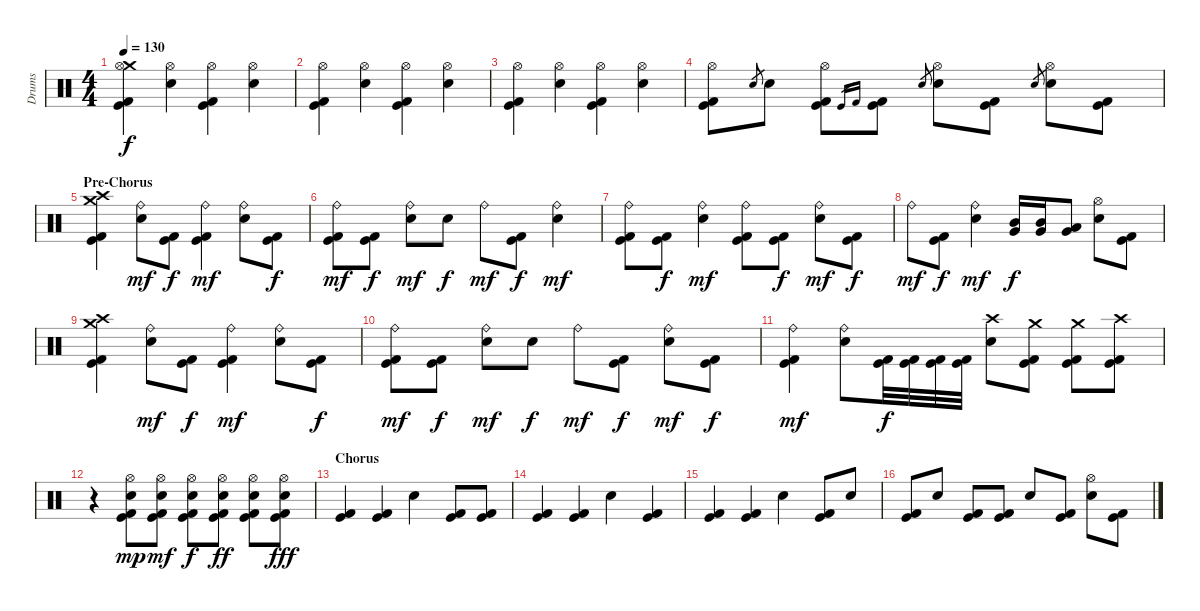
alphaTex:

\track ("Drums" "Drums") {instrument percussion}
\staff {score}
\articulation defaults
\ts (4 4)
\tempo 130
\clef neutral
\ks c
("Crash medium (hit)" "Hi-Hat (open)" "Kick (hit)" "Kick (hit) 2").4{dy f} ("Hi-Hat (open)" "Electric Snare (hit)").4 ("Hi-Hat (open)" "Kick (hit)" "Kick (hit) 2").4 ("Hi-Hat (open)" "Electric Snare (hit)").4 |
("Hi-Hat (open)" "Kick (hit)" "Kick (hit) 2").4 ("Hi-Hat (open)" "Electric Snare (hit)").4 ("Hi-Hat (open)" "Kick (hit)" "Kick (hit) 2").4 ("Hi-Hat (open)" "Electric Snare (hit)").4 |
("Hi-Hat (open)" "Kick (hit)" "Kick (hit) 2").4 ("Hi-Hat (open)" "Electric Snare (hit)").4 ("Hi-Hat (open)" "Kick (hit)" "Kick (hit) 2").4 ("Hi-Hat (open)" "Electric Snare (hit)").4 |
("Hi-Hat (open)" "Kick (hit)" "Kick (hit) 2").8 "Electric Snare (hit)".8{gr} "Electric Snare (hit)".8 ("Hi-Hat (open)" "Kick (hit)" "Kick (hit) 2").8 "Kick (hit)".16{gr} "Kick (hit) 2".16{gr} ("Kick (hit)" "Kick (hit) 2").8 "Electric Snare (hit)".8{gr} ("Hi-Hat (open)" "Electric Snare (hit)").8 ("Kick (hit)" "Kick (hit) 2").8 "Electric Snare (hit)".8{gr} ("Hi-Hat (open)" "Electric Snare (hit)").8 ("Kick (hit)" "Kick (hit) 2").8 |
\section ("" "Pre-Chorus")
("Crash medium (hit)" "Crash high (hit)" "Kick (hit)" "Kick (hit) 2").4 ("Ride (bell)" "Electric Snare (hit)").8{dy mf} ("Kick (hit)" "Kick (hit) 2").8{dy f} ("Ride (bell)" "Kick (hit)" "Kick (hit) 2").4{dy mf} ("Ride (bell)" "Electric Snare (hit)").8 ("Kick (hit)" "Kick (hit) 2").8{dy f} |
("Ride (bell)" "Kick (hit)" "Kick (hit) 2").8{dy mf} ("Kick (hit)" "Kick (hit) 2").8{dy f} ("Ride (bell)" "Electric Snare (hit)").8{dy mf} "Electric Snare (hit)".8{dy f} "Ride (bell)".8{dy mf} ("Kick (hit)" "Kick (hit) 2").8{dy f} ("Ride (bell)" "Electric Snare (hit)").4{dy mf} |
("Ride (bell)" "Kick (hit)" "Kick (hit) 2").8 ("Kick (hit)" "Kick (hit) 2").8{dy f} ("Ride (bell)" "Electric Snare (hit)").4{dy mf} ("Ride (bell)" "Kick (hit)" "Kick (hit) 2").8 ("Kick (hit)" "Kick (hit) 2").8{dy f} ("Ride (bell)" "Electric Snare (hit)").8{dy mf} ("Kick (hit)" "Kick (hit) 2").8{dy f} |
"Ride (bell)".8{dy mf} ("Kick (hit)" "Kick (hit) 2").8{dy f} ("Ride (bell)" "Electric Snare (hit)").4{dy mf} ("Mid Tom (hit)" "Very Low Tom (hit)").16{dy f} ("Mid Tom (hit)" "Very Low Tom (hit)").16 ("Low Tom (hit)" "Very Low Tom (hit)").8 ("Hi-Hat (open)" "Electric Snare (hit)").8 ("Kick (hit)" "Kick (hit) 2").8 |
("Crash medium (hit)" "Crash high (hit)" "Kick (hit)" "Kick (hit) 2").4 ("Ride (bell)" "Electric Snare (hit)").8{dy mf} ("Kick (hit)" "Kick (hit) 2").8{dy f} ("Ride (bell)" "Kick (hit)" "Kick (hit) 2").4{dy mf} ("Ride (bell)" "Electric Snare (hit)").8 ("Kick (hit)" "Kick (hit) 2").8{dy f} |
("Ride (bell)" "Kick (hit)" "Kick (hit) 2").8{dy mf} ("Kick (hit)" "Kick (hit) 2").8{dy f} ("Ride (bell)" "Electric Snare (hit)").8{dy mf} "Electric Snare (hit)".8{dy f} "Ride (bell)".8{dy mf} ("Kick (hit)" "Kick (hit) 2").8{dy f} ("Ride (bell)" "Electric Snare (hit)").8{dy mf} ("Kick (hit)" "Kick (hit) 2").8{dy f} |
("Ride (bell)" "Kick (hit)" "Kick (hit) 2").4{dy mf} ("Ride (bell)" "Electric Snare (hit)").8 ("Kick (hit)" "Kick (hit) 2").32{dy f} ("Kick (hit)" "Kick (hit) 2").32 ("Kick (hit)" "Kick (hit) 2").32 ("Kick (hit)" "Kick (hit) 2").32 ("Crash high (hit)" "Electric Snare (hit)").8 ("Crash medium (hit)" "Kick (hit)" "Kick (hit) 2").8 ("Crash medium (hit)" "Kick (hit)" "Kick (hit) 2").8 ("Crash high (hit)" "Kick (hit)" "Kick (hit) 2").8 |
r.4 ("Hi-Hat (open)" "Electric Snare (hit)" "Kick (hit)" "Kick (hit) 2").8{dy mp} ("Hi-Hat (open)" "Electric Snare (hit)" "Kick (hit)" "Kick (hit) 2").8{dy mf} ("Hi-Hat (open)" "Electric Snare (hit)" "Kick (hit)" "Kick (hit) 2").8{dy f} ("Hi-Hat (open)" "Electric Snare (hit)" "Kick (hit)" "Kick (hit) 2").8{dy ff} ("Hi-Hat (open)" "Electric Snare (hit)" "Kick (hit)" "Kick (hit) 2").8 ("Hi-Hat (open)" "Electric Snare (hit)" "Kick (hit)" "Kick (hit) 2").8{dy fff} |
\section ("" "Chorus")
("Kick (hit)" "Kick (hit) 2").4 ("Kick (hit)" "Kick (hit) 2").4 "Electric Snare (hit)".4 ("Kick (hit)" "Kick (hit) 2").8 ("Kick (hit)" "Kick (hit) 2").8 |
("Kick (hit)" "Kick (hit) 2").4 ("Kick (hit)" "Kick (hit) 2").4 "Electric Snare (hit)".4 ("Kick (hit)" "Kick (hit) 2").4 |
("Kick (hit)" "Kick (hit) 2").4 ("Kick (hit)" "Kick (hit) 2").4 "Electric Snare (hit)".4 ("Kick (hit)" "Kick (hit) 2").8 "Electric Snare (hit)".8 |
("Kick (hit)" "Kick (hit) 2").8 "Electric Snare (hit)".8 ("Kick (hit)" "Kick (hit) 2").8 ("Kick (hit)" "Kick (hit) 2").8 "Electric Snare (hit)".8 ("Kick (hit)" "Kick (hit) 2").8 ("Hi-Hat (open)" "Electric Snare (hit)").8 ("Kick (hit)" "Kick (hit) 2").8
